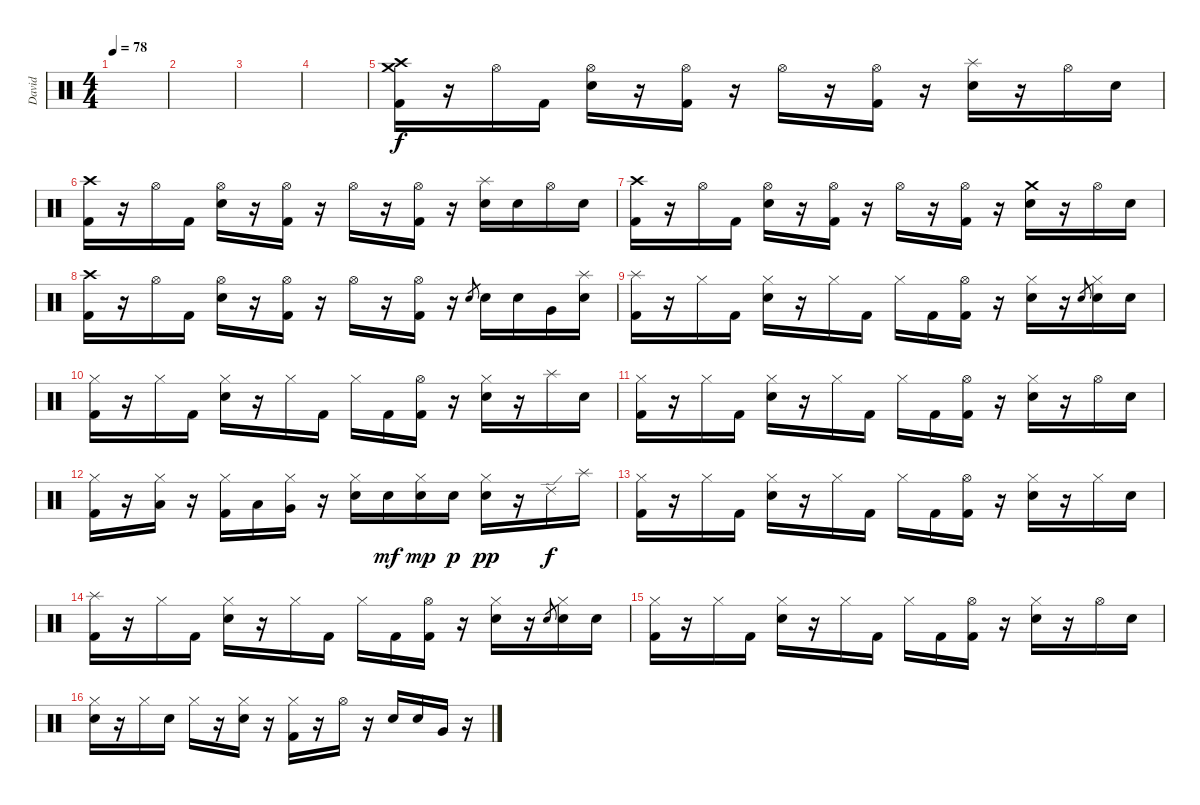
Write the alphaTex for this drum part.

\track ("David" "David") {instrument percussion}
\staff {score}
\articulation defaults
\ts (4 4)
\tempo 78
\clef neutral
\ks c
|
|
|
|
("Crash high (hit)" "Crash medium (hit)" "Kick (hit) 2").16 r.16 "Hi-Hat (open)".16 "Kick (hit) 2".16 ("Hi-Hat (open)" "Snare (hit) 2").16 r.16 ("Hi-Hat (open)" "Kick (hit) 2").16 r.16 "Hi-Hat (open)".16 r.16 ("Hi-Hat (open)" "Kick (hit) 2").16 r.16 ("Splash (hit)" "Snare (hit) 2").16 r.16 "Hi-Hat (open)".16 "Snare (hit) 2".16 |
("Crash high (hit)" "Kick (hit) 2").16 r.16 "Hi-Hat (open)".16 "Kick (hit) 2".16 ("Hi-Hat (open)" "Snare (hit) 2").16 r.16 ("Hi-Hat (open)" "Kick (hit) 2").16 r.16 "Hi-Hat (open)".16 r.16 ("Hi-Hat (open)" "Kick (hit) 2").16 r.16 ("Splash (hit)" "Snare (hit) 2").16 "Snare (hit) 2".16 "Hi-Hat (open)".16 "Snare (hit) 2".16 |
("Crash high (hit)" "Kick (hit) 2").16 r.16 "Hi-Hat (open)".16 "Kick (hit) 2".16 ("Hi-Hat (open)" "Snare (hit) 2").16 r.16 ("Hi-Hat (open)" "Kick (hit) 2").16 r.16 "Hi-Hat (open)".16 r.16 ("Hi-Hat (open)" "Kick (hit) 2").16 r.16 ("Crash medium (hit)" "Snare (hit) 2").16 r.16 "Hi-Hat (open)".16 "Snare (hit) 2".16 |
("Crash high (hit)" "Kick (hit) 2").16 r.16 "Hi-Hat (open)".16 "Kick (hit) 2".16 ("Hi-Hat (open)" "Snare (hit) 2").16 r.16 ("Hi-Hat (open)" "Kick (hit) 2").16 r.16 "Hi-Hat (open)".16 r.16 ("Hi-Hat (open)" "Kick (hit) 2").16 r.16 "Snare (hit) 2".8{gr} "Snare (hit) 2".16 "Snare (hit) 2".16 "Very Low Tom (hit)".16 ("Splash (hit)" "Snare (hit) 2"{x}).16 |
("Splash (hit)" "Kick (hit) 2").16 r.16 "Hi-Hat (closed)".16 "Kick (hit) 2".16 ("Hi-Hat (closed)" "Snare (hit) 2").16 r.16 "Hi-Hat (closed)".16 "Kick (hit) 2".16 "Hi-Hat (closed)".16 "Kick (hit) 2".16 ("Hi-Hat (open)" "Kick (hit) 2").16 r.16 ("Hi-Hat (closed)" "Snare (hit) 2").16 r.16 "Snare (hit) 2".8{gr} ("Hi-Hat (closed)" "Snare (hit) 2").16 "Snare (hit) 2".16 |
("Hi-Hat (closed)" "Kick (hit) 2").16 r.16 "Hi-Hat (closed)".16 "Kick (hit) 2".16 ("Hi-Hat (closed)" "Snare (hit) 2").16 r.16 "Hi-Hat (closed)".16 "Kick (hit) 2".16 "Hi-Hat (closed)".16 "Kick (hit) 2".16 ("Hi-Hat (open)" "Kick (hit) 2").16 r.16 ("Hi-Hat (closed)" "Snare (hit) 2").16 r.16 "Splash (hit)".16 "Snare (hit) 2".16 |
("Hi-Hat (closed)" "Kick (hit) 2").16 r.16 "Hi-Hat (closed)".16 "Kick (hit) 2".16 ("Hi-Hat (closed)" "Snare (hit) 2").16 r.16 "Hi-Hat (closed)".16 "Kick (hit) 2".16 "Hi-Hat (closed)".16 "Kick (hit) 2".16 ("Hi-Hat (open)" "Kick (hit) 2").16 r.16 ("Hi-Hat (closed)" "Snare (hit) 2").16 r.16 "Hi-Hat (open)".16 "Snare (hit) 2".16 |
("Hi-Hat (closed)" "Kick (hit) 2").16 r.16 ("Hi-Hat (closed)" "Low Tom (hit)").16 r.16 ("Hi-Hat (closed)" "Kick (hit) 2").16 "Low Tom (hit)".16 ("Hi-Hat (closed)" "Very Low Tom (hit)").16 r.16 ("Hi-Hat (closed)" "Snare (hit) 2").16 "Snare (hit) 2".16{dy mf} ("Hi-Hat (closed)" "Snare (hit) 2").16{dy mp} "Snare (hit) 2".16{dy p} ("Hi-Hat (closed)" "Snare (hit) 2").16{dy pp} r.16 "Ride (edge) 2".16{dy f} "Splash (hit)".16 |
("Hi-Hat (closed)" "Kick (hit) 2").16 r.16 "Hi-Hat (closed)".16 "Kick (hit) 2".16 ("Hi-Hat (closed)" "Snare (hit) 2").16 r.16 "Hi-Hat (closed)".16 "Kick (hit) 2".16 "Hi-Hat (closed)".16 "Kick (hit) 2".16 ("Hi-Hat (open)" "Kick (hit) 2").16 r.16 ("Hi-Hat (closed)" "Snare (hit) 2").16 r.16 "Hi-Hat (closed)".16 "Snare (hit) 2".16 |
("Splash (hit)" "Kick (hit) 2").16 r.16 "Hi-Hat (closed)".16 "Kick (hit) 2".16 ("Hi-Hat (closed)" "Snare (hit) 2").16 r.16 "Hi-Hat (closed)".16 "Kick (hit) 2".16 "Hi-Hat (closed)".16 "Kick (hit) 2".16 ("Hi-Hat (open)" "Kick (hit) 2").16 r.16 ("Hi-Hat (closed)" "Snare (hit) 2").16 r.16 "Snare (hit) 2".8{gr} ("Hi-Hat (closed)" "Snare (hit) 2").16 "Snare (hit) 2".16 |
("Hi-Hat (closed)" "Kick (hit) 2").16 r.16 "Hi-Hat (closed)".16 "Kick (hit) 2".16 ("Hi-Hat (closed)" "Snare (hit) 2").16 r.16 "Hi-Hat (closed)".16 "Kick (hit) 2".16 "Hi-Hat (closed)".16 "Kick (hit) 2".16 ("Hi-Hat (open)" "Kick (hit) 2").16 r.16 ("Hi-Hat (closed)" "Snare (hit) 2").16 r.16 "Hi-Hat (open)".16 "Snare (hit) 2".16 |
("Hi-Hat (closed)" "Snare (hit) 2").16 r.16 "Hi-Hat (closed)".16 "Snare (hit) 2".16 "Hi-Hat (closed)".16 r.16 ("Hi-Hat (closed)" "Snare (hit) 2").16 r.16 ("Hi-Hat (closed)" "Kick (hit) 2").16 r.16 "Hi-Hat (open)".16 r.16 "Snare (hit) 2".16 "Snare (hit) 2".16 "Very Low Tom (hit)".16 r.16
